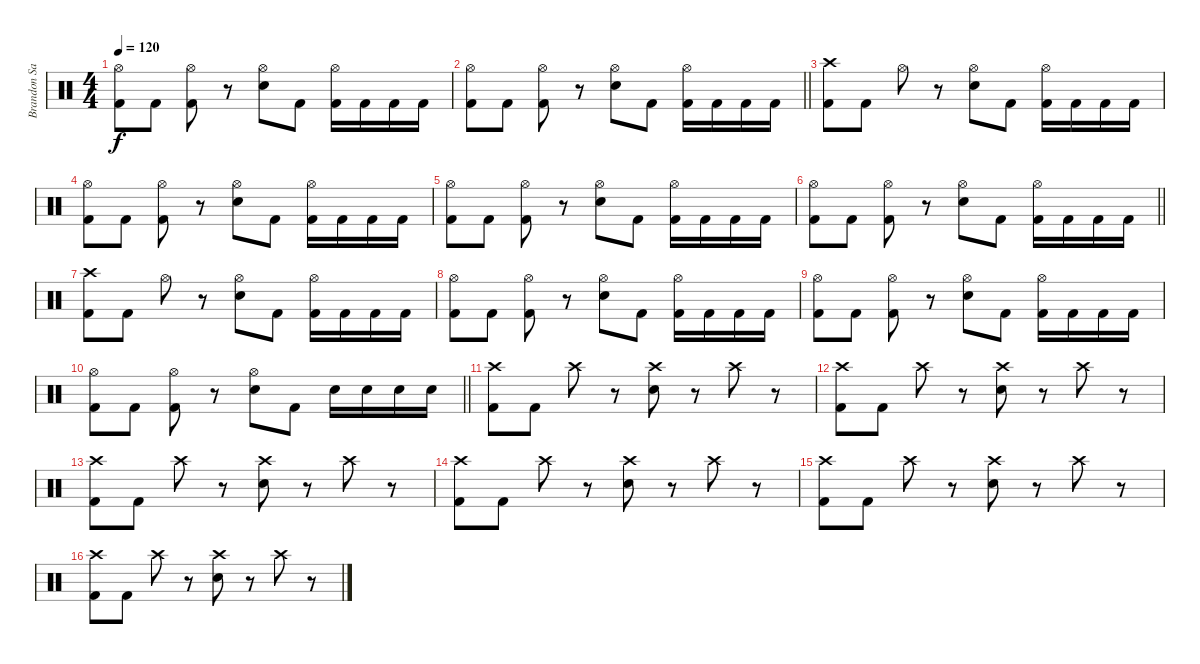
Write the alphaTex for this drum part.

\track ("Brandon Saller" "Brandon Sa") {instrument percussion}
\staff {score}
\articulation defaults
\ts (4 4)
\tempo 120
\clef neutral
\ks c
("Hi-Hat (open)" "Kick (hit) 2").8{dy f} "Kick (hit) 2".8 ("Hi-Hat (open)" "Kick (hit) 2").8 r.8 ("Hi-Hat (open)" "Electric Snare (hit)").8 "Kick (hit) 2".8 ("Hi-Hat (open)" "Kick (hit) 2").16 "Kick (hit) 2".16 "Kick (hit) 2".16 "Kick (hit) 2".16 |
\barLineRight lightlight
("Hi-Hat (open)" "Kick (hit) 2").8 "Kick (hit) 2".8 ("Hi-Hat (open)" "Kick (hit) 2").8 r.8 ("Hi-Hat (open)" "Electric Snare (hit)").8 "Kick (hit) 2".8 ("Hi-Hat (open)" "Kick (hit) 2").16 "Kick (hit) 2".16 "Kick (hit) 2".16 "Kick (hit) 2".16 |
("Crash high (hit)" "Kick (hit) 2").8 "Kick (hit) 2".8 "Hi-Hat (open)".8 r.8 ("Hi-Hat (open)" "Electric Snare (hit)").8 "Kick (hit) 2".8 ("Hi-Hat (open)" "Kick (hit) 2").16 "Kick (hit) 2".16 "Kick (hit) 2".16 "Kick (hit) 2".16 |
("Hi-Hat (open)" "Kick (hit) 2").8 "Kick (hit) 2".8 ("Hi-Hat (open)" "Kick (hit) 2").8 r.8 ("Hi-Hat (open)" "Electric Snare (hit)").8 "Kick (hit) 2".8 ("Hi-Hat (open)" "Kick (hit) 2").16 "Kick (hit) 2".16 "Kick (hit) 2".16 "Kick (hit) 2".16 |
("Hi-Hat (open)" "Kick (hit) 2").8 "Kick (hit) 2".8 ("Hi-Hat (open)" "Kick (hit) 2").8 r.8 ("Hi-Hat (open)" "Electric Snare (hit)").8 "Kick (hit) 2".8 ("Hi-Hat (open)" "Kick (hit) 2").16 "Kick (hit) 2".16 "Kick (hit) 2".16 "Kick (hit) 2".16 |
\barLineRight lightlight
("Hi-Hat (open)" "Kick (hit) 2").8 "Kick (hit) 2".8 ("Hi-Hat (open)" "Kick (hit) 2").8 r.8 ("Hi-Hat (open)" "Electric Snare (hit)").8 "Kick (hit) 2".8 ("Hi-Hat (open)" "Kick (hit) 2").16 "Kick (hit) 2".16 "Kick (hit) 2".16 "Kick (hit) 2".16 |
("Crash high (hit)" "Kick (hit) 2").8 "Kick (hit) 2".8 "Hi-Hat (open)".8 r.8 ("Hi-Hat (open)" "Electric Snare (hit)").8 "Kick (hit) 2".8 ("Hi-Hat (open)" "Kick (hit) 2").16 "Kick (hit) 2".16 "Kick (hit) 2".16 "Kick (hit) 2".16 |
("Hi-Hat (open)" "Kick (hit) 2").8 "Kick (hit) 2".8 ("Hi-Hat (open)" "Kick (hit) 2").8 r.8 ("Hi-Hat (open)" "Electric Snare (hit)").8 "Kick (hit) 2".8 ("Hi-Hat (open)" "Kick (hit) 2").16 "Kick (hit) 2".16 "Kick (hit) 2".16 "Kick (hit) 2".16 |
("Hi-Hat (open)" "Kick (hit) 2").8 "Kick (hit) 2".8 ("Hi-Hat (open)" "Kick (hit) 2").8 r.8 ("Hi-Hat (open)" "Electric Snare (hit)").8 "Kick (hit) 2".8 ("Hi-Hat (open)" "Kick (hit) 2").16 "Kick (hit) 2".16 "Kick (hit) 2".16 "Kick (hit) 2".16 |
\barLineRight lightlight
("Hi-Hat (open)" "Kick (hit) 2").8 "Kick (hit) 2".8 ("Hi-Hat (open)" "Kick (hit) 2").8 r.8 ("Hi-Hat (open)" "Electric Snare (hit)").8 "Kick (hit) 2".8 "Electric Snare (hit)".16 "Electric Snare (hit)".16 "Electric Snare (hit)".16 "Electric Snare (hit)".16 |
("Crash high (hit)" "Kick (hit) 2").8 "Kick (hit) 2".8 "Crash high (hit)".8 r.8 ("Crash high (hit)" "Electric Snare (hit)").8 r.8 "Crash high (hit)".8 r.8 |
("Crash high (hit)" "Kick (hit) 2").8 "Kick (hit) 2".8 "Crash high (hit)".8 r.8 ("Crash high (hit)" "Electric Snare (hit)").8 r.8 "Crash high (hit)".8 r.8 |
("Crash high (hit)" "Kick (hit) 2").8 "Kick (hit) 2".8 "Crash high (hit)".8 r.8 ("Crash high (hit)" "Electric Snare (hit)").8 r.8 "Crash high (hit)".8 r.8 |
("Crash high (hit)" "Kick (hit) 2").8 "Kick (hit) 2".8 "Crash high (hit)".8 r.8 ("Crash high (hit)" "Electric Snare (hit)").8 r.8 "Crash high (hit)".8 r.8 |
("Crash high (hit)" "Kick (hit) 2").8 "Kick (hit) 2".8 "Crash high (hit)".8 r.8 ("Crash high (hit)" "Electric Snare (hit)").8 r.8 "Crash high (hit)".8 r.8 |
("Crash high (hit)" "Kick (hit) 2").8 "Kick (hit) 2".8 "Crash high (hit)".8 r.8 ("Crash high (hit)" "Electric Snare (hit)").8 r.8 "Crash high (hit)".8 r.8
